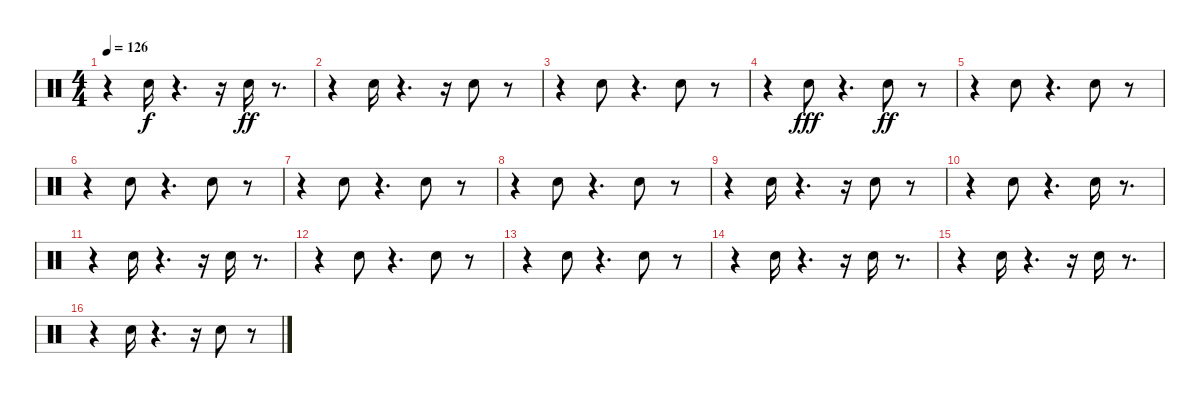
\track "" {instrument percussion}
\staff {score}
\articulation defaults
\ts (4 4)
\tempo 126
\clef neutral
\ks c
r.4{dy ff} "Snare (hit) 2".16{dy f} r.4{d} r.16 "Snare (hit) 2".16{dy ff} r.8{d} |
r.4 "Snare (hit) 2".16 r.4{d} r.16 "Snare (hit) 2".8 r.8 |
r.4 "Snare (hit) 2".8 r.4{d} "Snare (hit) 2".8 r.8 |
r.4 "Snare (hit) 2".8{dy fff} r.4{d} "Snare (hit) 2".8{dy ff} r.8 |
r.4 "Snare (hit) 2".8 r.4{d} "Snare (hit) 2".8 r.8 |
r.4 "Snare (hit) 2".8 r.4{d} "Snare (hit) 2".8 r.8 |
r.4 "Snare (hit) 2".8 r.4{d} "Snare (hit) 2".8 r.8 |
r.4 "Snare (hit) 2".8 r.4{d} "Snare (hit) 2".8 r.8 |
r.4 "Snare (hit) 2".16 r.4{d} r.16 "Snare (hit) 2".8 r.8 |
r.4 "Snare (hit) 2".8 r.4{d} "Snare (hit) 2".16 r.8{d} |
r.4 "Snare (hit) 2".16 r.4{d} r.16 "Snare (hit) 2".16 r.8{d} |
r.4 "Snare (hit) 2".8 r.4{d} "Snare (hit) 2".8 r.8 |
r.4 "Snare (hit) 2".8 r.4{d} "Snare (hit) 2".8 r.8 |
r.4 "Snare (hit) 2".16 r.4{d} r.16 "Snare (hit) 2".16 r.8{d} |
r.4 "Snare (hit) 2".16 r.4{d} r.16 "Snare (hit) 2".16 r.8{d} |
r.4 "Snare (hit) 2".16 r.4{d} r.16 "Snare (hit) 2".8 r.8
